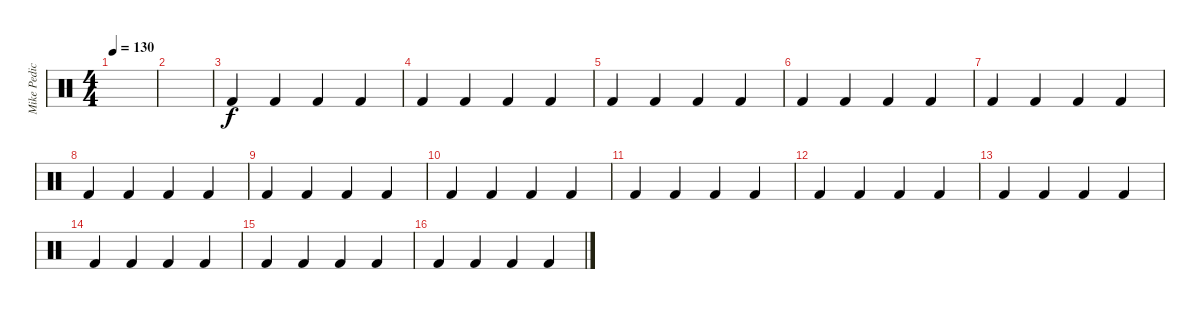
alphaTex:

\track ("Mike Pedicone - Drum" "Mike Pedic") {instrument percussion}
\staff {score}
\articulation defaults
\ts (4 4)
\tempo 130
\clef neutral
\ks c
|
|
"Kick (hit) 2".4 "Kick (hit) 2".4 "Kick (hit) 2".4 "Kick (hit) 2".4 |
"Kick (hit) 2".4 "Kick (hit) 2".4 "Kick (hit) 2".4 "Kick (hit) 2".4 |
"Kick (hit) 2".4 "Kick (hit) 2".4 "Kick (hit) 2".4 "Kick (hit) 2".4 |
"Kick (hit) 2".4 "Kick (hit) 2".4 "Kick (hit) 2".4 "Kick (hit) 2".4 |
"Kick (hit) 2".4 "Kick (hit) 2".4 "Kick (hit) 2".4 "Kick (hit) 2".4 |
"Kick (hit) 2".4 "Kick (hit) 2".4 "Kick (hit) 2".4 "Kick (hit) 2".4 |
"Kick (hit) 2".4 "Kick (hit) 2".4 "Kick (hit) 2".4 "Kick (hit) 2".4 |
"Kick (hit) 2".4 "Kick (hit) 2".4 "Kick (hit) 2".4 "Kick (hit) 2".4 |
"Kick (hit) 2".4 "Kick (hit) 2".4 "Kick (hit) 2".4 "Kick (hit) 2".4 |
"Kick (hit) 2".4 "Kick (hit) 2".4 "Kick (hit) 2".4 "Kick (hit) 2".4 |
"Kick (hit) 2".4 "Kick (hit) 2".4 "Kick (hit) 2".4 "Kick (hit) 2".4 |
"Kick (hit) 2".4 "Kick (hit) 2".4 "Kick (hit) 2".4 "Kick (hit) 2".4 |
"Kick (hit) 2".4 "Kick (hit) 2".4 "Kick (hit) 2".4 "Kick (hit) 2".4 |
"Kick (hit) 2".4 "Kick (hit) 2".4 "Kick (hit) 2".4 "Kick (hit) 2".4
